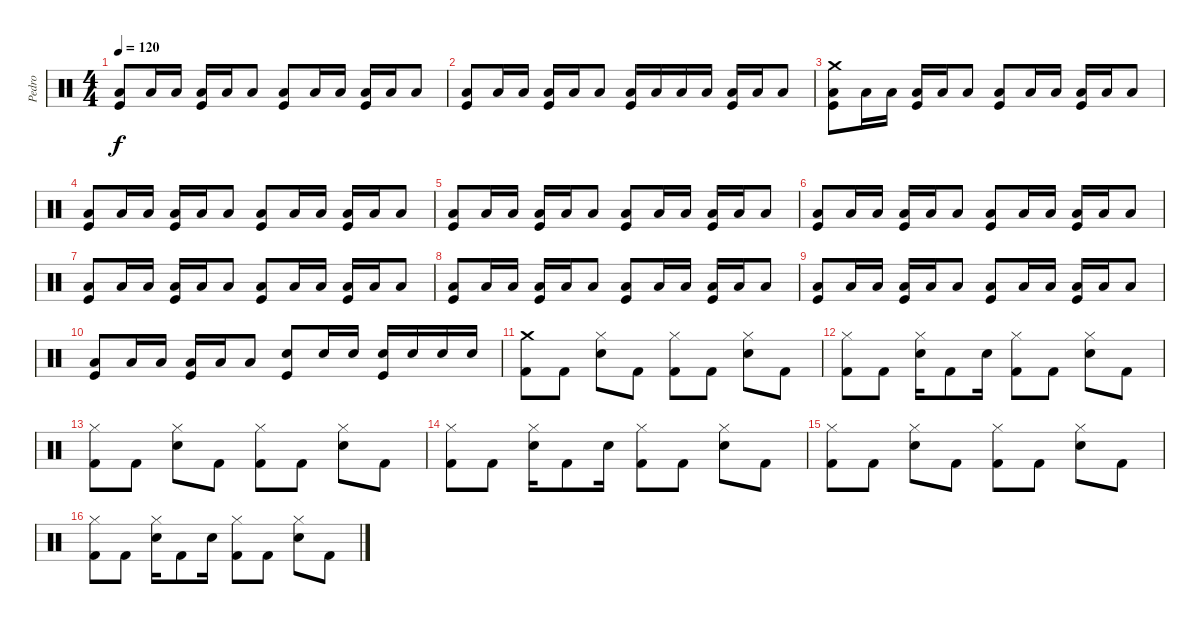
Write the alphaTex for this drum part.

\track ("Pedro" "Pedro") {instrument percussion}
\staff {score}
\articulation defaults
\ts (4 4)
\tempo 120
\clef neutral
\ks c
("Low Floor Tom (hit)" "Kick (hit)").8{dy f} "Low Floor Tom (hit)".16 "Low Floor Tom (hit)".16 ("Low Floor Tom (hit)" "Kick (hit)").16 "Low Floor Tom (hit)".16 "Low Floor Tom (hit)".8 ("Low Floor Tom (hit)" "Kick (hit)").8 "Low Floor Tom (hit)".16 "Low Floor Tom (hit)".16 ("Low Floor Tom (hit)" "Kick (hit)").16 "Low Floor Tom (hit)".16 "Low Floor Tom (hit)".8 |
("Low Floor Tom (hit)" "Kick (hit)").8 "Low Floor Tom (hit)".16 "Low Floor Tom (hit)".16 ("Low Floor Tom (hit)" "Kick (hit)").16 "Low Floor Tom (hit)".16 "Low Floor Tom (hit)".8 ("Low Tom (hit)" "Kick (hit)").16 "Low Tom (hit)".16 "Low Tom (hit)".16 "Low Tom (hit)".16 ("Low Tom (hit)" "Kick (hit)").16 "Low Tom (hit)".16 "Low Tom (hit)".8 |
("Crash medium (hit)" "Low Floor Tom (hit)" "Kick (hit)").8 "Low Floor Tom (hit)".16 "Low Floor Tom (hit)".16 ("Low Floor Tom (hit)" "Kick (hit)").16 "Low Floor Tom (hit)".16 "Low Floor Tom (hit)".8 ("Low Floor Tom (hit)" "Kick (hit)").8 "Low Floor Tom (hit)".16 "Low Floor Tom (hit)".16 ("Low Floor Tom (hit)" "Kick (hit)").16 "Low Floor Tom (hit)".16 "Low Floor Tom (hit)".8 |
("Low Floor Tom (hit)" "Kick (hit)").8 "Low Floor Tom (hit)".16 "Low Floor Tom (hit)".16 ("Low Floor Tom (hit)" "Kick (hit)").16 "Low Floor Tom (hit)".16 "Low Floor Tom (hit)".8 ("Low Floor Tom (hit)" "Kick (hit)").8 "Low Floor Tom (hit)".16 "Low Floor Tom (hit)".16 ("Low Floor Tom (hit)" "Kick (hit)").16 "Low Floor Tom (hit)".16 "Low Floor Tom (hit)".8 |
("Low Floor Tom (hit)" "Kick (hit)").8 "Low Floor Tom (hit)".16 "Low Floor Tom (hit)".16 ("Low Floor Tom (hit)" "Kick (hit)").16 "Low Floor Tom (hit)".16 "Low Floor Tom (hit)".8 ("Low Floor Tom (hit)" "Kick (hit)").8 "Low Floor Tom (hit)".16 "Low Floor Tom (hit)".16 ("Low Floor Tom (hit)" "Kick (hit)").16 "Low Floor Tom (hit)".16 "Low Floor Tom (hit)".8 |
("Low Floor Tom (hit)" "Kick (hit)").8 "Low Floor Tom (hit)".16 "Low Floor Tom (hit)".16 ("Low Floor Tom (hit)" "Kick (hit)").16 "Low Floor Tom (hit)".16 "Low Floor Tom (hit)".8 ("Low Floor Tom (hit)" "Kick (hit)").8 "Low Floor Tom (hit)".16 "Low Floor Tom (hit)".16 ("Low Floor Tom (hit)" "Kick (hit)").16 "Low Floor Tom (hit)".16 "Low Floor Tom (hit)".8 |
("Low Floor Tom (hit)" "Kick (hit)").8 "Low Floor Tom (hit)".16 "Low Floor Tom (hit)".16 ("Low Floor Tom (hit)" "Kick (hit)").16 "Low Floor Tom (hit)".16 "Low Floor Tom (hit)".8 ("Low Floor Tom (hit)" "Kick (hit)").8 "Low Floor Tom (hit)".16 "Low Floor Tom (hit)".16 ("Low Floor Tom (hit)" "Kick (hit)").16 "Low Floor Tom (hit)".16 "Low Floor Tom (hit)".8 |
("Low Floor Tom (hit)" "Kick (hit)").8 "Low Floor Tom (hit)".16 "Low Floor Tom (hit)".16 ("Low Floor Tom (hit)" "Kick (hit)").16 "Low Floor Tom (hit)".16 "Low Floor Tom (hit)".8 ("Low Floor Tom (hit)" "Kick (hit)").8 "Low Floor Tom (hit)".16 "Low Floor Tom (hit)".16 ("Low Floor Tom (hit)" "Kick (hit)").16 "Low Floor Tom (hit)".16 "Low Floor Tom (hit)".8 |
("Low Floor Tom (hit)" "Kick (hit)").8 "Low Floor Tom (hit)".16 "Low Floor Tom (hit)".16 ("Low Floor Tom (hit)" "Kick (hit)").16 "Low Floor Tom (hit)".16 "Low Floor Tom (hit)".8 ("Low Floor Tom (hit)" "Kick (hit)").8 "Low Floor Tom (hit)".16 "Low Floor Tom (hit)".16 ("Low Floor Tom (hit)" "Kick (hit)").16 "Low Floor Tom (hit)".16 "Low Floor Tom (hit)".8 |
("Low Floor Tom (hit)" "Kick (hit)").8 "Low Floor Tom (hit)".16 "Low Floor Tom (hit)".16 ("Low Floor Tom (hit)" "Kick (hit)").16 "Low Floor Tom (hit)".16 "Low Floor Tom (hit)".8 ("Snare (hit) 2" "Kick (hit)").8 "Snare (hit) 2".16 "Snare (hit) 2".16 ("Snare (hit) 2" "Kick (hit)").16 "Snare (hit) 2".16 "Snare (hit) 2".16 "Snare (hit) 2".16 |
("Crash medium (hit)" "Kick (hit) 2").8 "Kick (hit) 2".8 ("Hi-Hat (closed)" "Snare (hit) 2").8 "Kick (hit) 2".8 ("Hi-Hat (closed)" "Kick (hit) 2").8 "Kick (hit) 2".8 ("Hi-Hat (closed)" "Snare (hit) 2").8 "Kick (hit) 2".8 |
("Hi-Hat (closed)" "Kick (hit) 2").8 "Kick (hit) 2".8 ("Hi-Hat (closed)" "Snare (hit) 2").16 "Kick (hit) 2".8 "Snare (hit) 2".16 ("Hi-Hat (closed)" "Kick (hit) 2").8 "Kick (hit) 2".8 ("Hi-Hat (closed)" "Snare (hit) 2").8 "Kick (hit) 2".8 |
("Hi-Hat (closed)" "Kick (hit) 2").8 "Kick (hit) 2".8 ("Hi-Hat (closed)" "Snare (hit) 2").8 "Kick (hit) 2".8 ("Hi-Hat (closed)" "Kick (hit) 2").8 "Kick (hit) 2".8 ("Hi-Hat (closed)" "Snare (hit) 2").8 "Kick (hit) 2".8 |
("Hi-Hat (closed)" "Kick (hit) 2").8 "Kick (hit) 2".8 ("Hi-Hat (closed)" "Snare (hit) 2").16 "Kick (hit) 2".8 "Snare (hit) 2".16 ("Hi-Hat (closed)" "Kick (hit) 2").8 "Kick (hit) 2".8 ("Hi-Hat (closed)" "Snare (hit) 2").8 "Kick (hit) 2".8 |
("Hi-Hat (closed)" "Kick (hit) 2").8 "Kick (hit) 2".8 ("Hi-Hat (closed)" "Snare (hit) 2").8 "Kick (hit) 2".8 ("Hi-Hat (closed)" "Kick (hit) 2").8 "Kick (hit) 2".8 ("Hi-Hat (closed)" "Snare (hit) 2").8 "Kick (hit) 2".8 |
("Hi-Hat (closed)" "Kick (hit) 2").8 "Kick (hit) 2".8 ("Hi-Hat (closed)" "Snare (hit) 2").16 "Kick (hit) 2".8 "Snare (hit) 2".16 ("Hi-Hat (closed)" "Kick (hit) 2").8 "Kick (hit) 2".8 ("Hi-Hat (closed)" "Snare (hit) 2").8 "Kick (hit) 2".8
